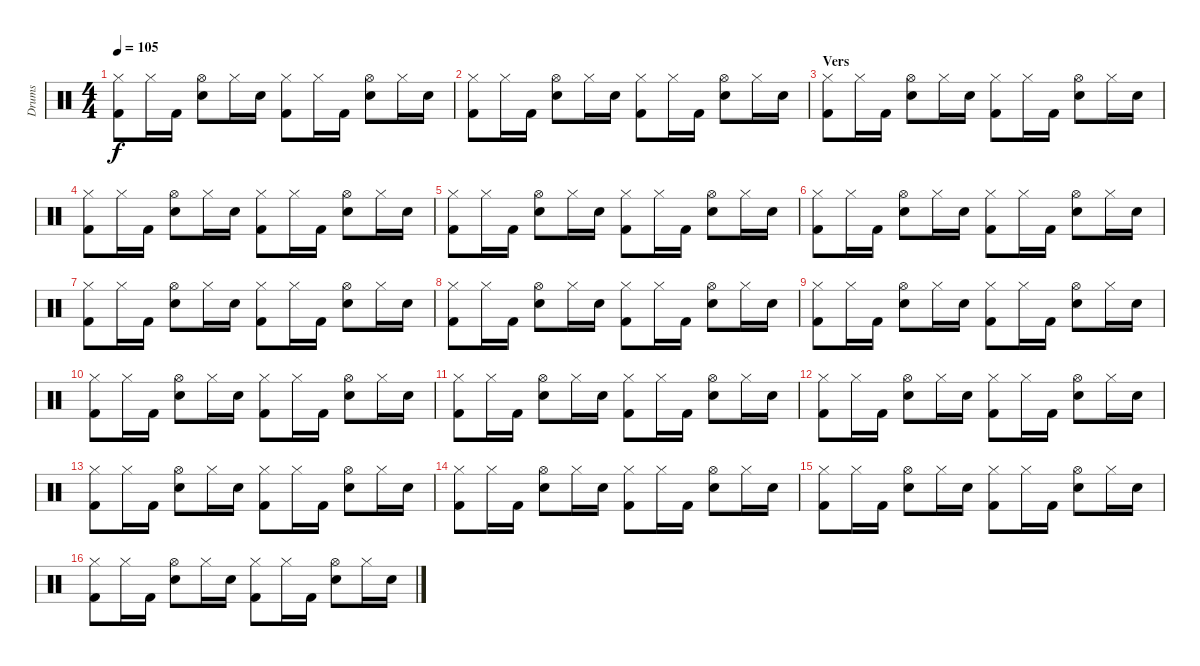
\track ("Drums" "Drums") {instrument percussion}
\staff {score}
\articulation defaults
\ts (4 4)
\tempo 105
\clef neutral
\ks c
("Kick (hit) 2" "Hi-Hat (closed)").8{dy f} "Hi-Hat (closed)".16 "Kick (hit) 2".16 ("Hi-Hat (open)" "Snare (hit) 2").8 "Hi-Hat (closed)".16 "Snare (hit) 2".16 ("Hi-Hat (closed)" "Kick (hit) 2").8 "Hi-Hat (closed)".16 "Kick (hit) 2".16 ("Hi-Hat (open)" "Snare (hit) 2").8 "Hi-Hat (closed)".16 "Snare (hit) 2".16 |
("Kick (hit) 2" "Hi-Hat (closed)").8 "Hi-Hat (closed)".16 "Kick (hit) 2".16 ("Hi-Hat (open)" "Snare (hit) 2").8 "Hi-Hat (closed)".16 "Snare (hit) 2".16 ("Hi-Hat (closed)" "Kick (hit) 2").8 "Hi-Hat (closed)".16 "Kick (hit) 2".16 ("Hi-Hat (open)" "Snare (hit) 2").8 "Hi-Hat (closed)".16 "Snare (hit) 2".16 |
\section ("" "Vers")
("Kick (hit) 2" "Hi-Hat (closed)").8 "Hi-Hat (closed)".16 "Kick (hit) 2".16 ("Hi-Hat (open)" "Snare (hit) 2").8 "Hi-Hat (closed)".16 "Snare (hit) 2".16 ("Hi-Hat (closed)" "Kick (hit) 2").8 "Hi-Hat (closed)".16 "Kick (hit) 2".16 ("Hi-Hat (open)" "Snare (hit) 2").8 "Hi-Hat (closed)".16 "Snare (hit) 2".16 |
("Kick (hit) 2" "Hi-Hat (closed)").8 "Hi-Hat (closed)".16 "Kick (hit) 2".16 ("Hi-Hat (open)" "Snare (hit) 2").8 "Hi-Hat (closed)".16 "Snare (hit) 2".16 ("Hi-Hat (closed)" "Kick (hit) 2").8 "Hi-Hat (closed)".16 "Kick (hit) 2".16 ("Hi-Hat (open)" "Snare (hit) 2").8 "Hi-Hat (closed)".16 "Snare (hit) 2".16 |
("Kick (hit) 2" "Hi-Hat (closed)").8 "Hi-Hat (closed)".16 "Kick (hit) 2".16 ("Hi-Hat (open)" "Snare (hit) 2").8 "Hi-Hat (closed)".16 "Snare (hit) 2".16 ("Hi-Hat (closed)" "Kick (hit) 2").8 "Hi-Hat (closed)".16 "Kick (hit) 2".16 ("Hi-Hat (open)" "Snare (hit) 2").8 "Hi-Hat (closed)".16 "Snare (hit) 2".16 |
("Kick (hit) 2" "Hi-Hat (closed)").8 "Hi-Hat (closed)".16 "Kick (hit) 2".16 ("Hi-Hat (open)" "Snare (hit) 2").8 "Hi-Hat (closed)".16 "Snare (hit) 2".16 ("Hi-Hat (closed)" "Kick (hit) 2").8 "Hi-Hat (closed)".16 "Kick (hit) 2".16 ("Hi-Hat (open)" "Snare (hit) 2").8 "Hi-Hat (closed)".16 "Snare (hit) 2".16 |
("Kick (hit) 2" "Hi-Hat (closed)").8 "Hi-Hat (closed)".16 "Kick (hit) 2".16 ("Hi-Hat (open)" "Snare (hit) 2").8 "Hi-Hat (closed)".16 "Snare (hit) 2".16 ("Hi-Hat (closed)" "Kick (hit) 2").8 "Hi-Hat (closed)".16 "Kick (hit) 2".16 ("Hi-Hat (open)" "Snare (hit) 2").8 "Hi-Hat (closed)".16 "Snare (hit) 2".16 |
("Kick (hit) 2" "Hi-Hat (closed)").8 "Hi-Hat (closed)".16 "Kick (hit) 2".16 ("Hi-Hat (open)" "Snare (hit) 2").8 "Hi-Hat (closed)".16 "Snare (hit) 2".16 ("Hi-Hat (closed)" "Kick (hit) 2").8 "Hi-Hat (closed)".16 "Kick (hit) 2".16 ("Hi-Hat (open)" "Snare (hit) 2").8 "Hi-Hat (closed)".16 "Snare (hit) 2".16 |
("Kick (hit) 2" "Hi-Hat (closed)").8 "Hi-Hat (closed)".16 "Kick (hit) 2".16 ("Hi-Hat (open)" "Snare (hit) 2").8 "Hi-Hat (closed)".16 "Snare (hit) 2".16 ("Hi-Hat (closed)" "Kick (hit) 2").8 "Hi-Hat (closed)".16 "Kick (hit) 2".16 ("Hi-Hat (open)" "Snare (hit) 2").8 "Hi-Hat (closed)".16 "Snare (hit) 2".16 |
("Kick (hit) 2" "Hi-Hat (closed)").8 "Hi-Hat (closed)".16 "Kick (hit) 2".16 ("Hi-Hat (open)" "Snare (hit) 2").8 "Hi-Hat (closed)".16 "Snare (hit) 2".16 ("Hi-Hat (closed)" "Kick (hit) 2").8 "Hi-Hat (closed)".16 "Kick (hit) 2".16 ("Hi-Hat (open)" "Snare (hit) 2").8 "Hi-Hat (closed)".16 "Snare (hit) 2".16 |
("Kick (hit) 2" "Hi-Hat (closed)").8 "Hi-Hat (closed)".16 "Kick (hit) 2".16 ("Hi-Hat (open)" "Snare (hit) 2").8 "Hi-Hat (closed)".16 "Snare (hit) 2".16 ("Hi-Hat (closed)" "Kick (hit) 2").8 "Hi-Hat (closed)".16 "Kick (hit) 2".16 ("Hi-Hat (open)" "Snare (hit) 2").8 "Hi-Hat (closed)".16 "Snare (hit) 2".16 |
("Kick (hit) 2" "Hi-Hat (closed)").8 "Hi-Hat (closed)".16 "Kick (hit) 2".16 ("Hi-Hat (open)" "Snare (hit) 2").8 "Hi-Hat (closed)".16 "Snare (hit) 2".16 ("Hi-Hat (closed)" "Kick (hit) 2").8 "Hi-Hat (closed)".16 "Kick (hit) 2".16 ("Hi-Hat (open)" "Snare (hit) 2").8 "Hi-Hat (closed)".16 "Snare (hit) 2".16 |
("Kick (hit) 2" "Hi-Hat (closed)").8 "Hi-Hat (closed)".16 "Kick (hit) 2".16 ("Hi-Hat (open)" "Snare (hit) 2").8 "Hi-Hat (closed)".16 "Snare (hit) 2".16 ("Hi-Hat (closed)" "Kick (hit) 2").8 "Hi-Hat (closed)".16 "Kick (hit) 2".16 ("Hi-Hat (open)" "Snare (hit) 2").8 "Hi-Hat (closed)".16 "Snare (hit) 2".16 |
("Kick (hit) 2" "Hi-Hat (closed)").8 "Hi-Hat (closed)".16 "Kick (hit) 2".16 ("Hi-Hat (open)" "Snare (hit) 2").8 "Hi-Hat (closed)".16 "Snare (hit) 2".16 ("Hi-Hat (closed)" "Kick (hit) 2").8 "Hi-Hat (closed)".16 "Kick (hit) 2".16 ("Hi-Hat (open)" "Snare (hit) 2").8 "Hi-Hat (closed)".16 "Snare (hit) 2".16 |
("Kick (hit) 2" "Hi-Hat (closed)").8 "Hi-Hat (closed)".16 "Kick (hit) 2".16 ("Hi-Hat (open)" "Snare (hit) 2").8 "Hi-Hat (closed)".16 "Snare (hit) 2".16 ("Hi-Hat (closed)" "Kick (hit) 2").8 "Hi-Hat (closed)".16 "Kick (hit) 2".16 ("Hi-Hat (open)" "Snare (hit) 2").8 "Hi-Hat (closed)".16 "Snare (hit) 2".16 |
("Kick (hit) 2" "Hi-Hat (closed)").8 "Hi-Hat (closed)".16 "Kick (hit) 2".16 ("Hi-Hat (open)" "Snare (hit) 2").8 "Hi-Hat (closed)".16 "Snare (hit) 2".16 ("Hi-Hat (closed)" "Kick (hit) 2").8 "Hi-Hat (closed)".16 "Kick (hit) 2".16 ("Hi-Hat (open)" "Snare (hit) 2").8 "Hi-Hat (closed)".16 "Snare (hit) 2".16
